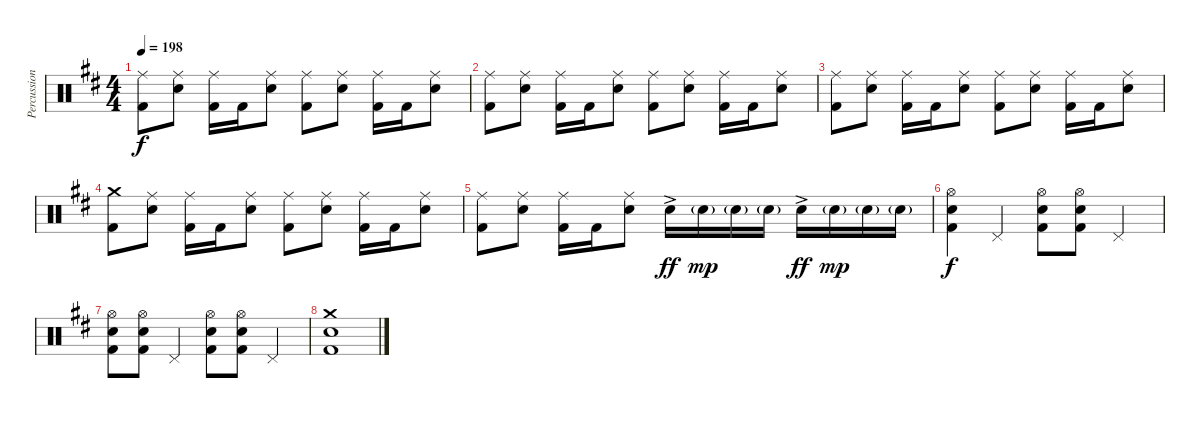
\track ("Percussion" "Percussion") {instrument percussion}
\staff {score}
\articulation defaults
\ts (4 4)
\tempo 198
\clef neutral
\ks bminor
("Ride (middle)" "Kick (hit) 2").8{dy f} ("Ride (middle)" "Snare (hit) 2").8 ("Ride (middle)" "Kick (hit) 2").16 "Kick (hit) 2".16 ("Ride (middle)" "Snare (hit) 2").8 ("Ride (middle)" "Kick (hit) 2").8 ("Ride (middle)" "Snare (hit) 2").8 ("Ride (middle)" "Kick (hit) 2").16 "Kick (hit) 2".16 ("Ride (middle)" "Snare (hit) 2").8 |
("Ride (middle)" "Kick (hit) 2").8 ("Ride (middle)" "Snare (hit) 2").8 ("Ride (middle)" "Kick (hit) 2").16 "Kick (hit) 2".16 ("Ride (middle)" "Snare (hit) 2").8 ("Ride (middle)" "Kick (hit) 2").8 ("Ride (middle)" "Snare (hit) 2").8 ("Ride (middle)" "Kick (hit) 2").16 "Kick (hit) 2".16 ("Ride (middle)" "Snare (hit) 2").8 |
("Ride (middle)" "Kick (hit) 2").8 ("Ride (middle)" "Snare (hit) 2").8 ("Ride (middle)" "Kick (hit) 2").16 "Kick (hit) 2".16 ("Ride (middle)" "Snare (hit) 2").8 ("Ride (middle)" "Kick (hit) 2").8 ("Ride (middle)" "Snare (hit) 2").8 ("Ride (middle)" "Kick (hit) 2").16 "Kick (hit) 2".16 ("Ride (middle)" "Snare (hit) 2").8 |
("Crash medium (hit)" "Kick (hit) 2").8 ("Ride (middle)" "Snare (hit) 2").8 ("Ride (middle)" "Kick (hit) 2").16 "Kick (hit) 2".16 ("Ride (middle)" "Snare (hit) 2").8 ("Ride (middle)" "Kick (hit) 2").8 ("Ride (middle)" "Snare (hit) 2").8 ("Ride (middle)" "Kick (hit) 2").16 "Kick (hit) 2".16 ("Ride (middle)" "Snare (hit) 2").8 |
("Ride (middle)" "Kick (hit) 2").8 ("Ride (middle)" "Snare (hit) 2").8 ("Ride (middle)" "Kick (hit) 2").16 "Kick (hit) 2".16 ("Ride (middle)" "Snare (hit) 2").8 "Snare (hit) 2"{ac}.16{dy ff} "Snare (hit) 2"{g}.16{dy mp} "Snare (hit) 2"{g}.16 "Snare (hit) 2"{g}.16 "Snare (hit) 2"{ac}.16{dy ff} "Snare (hit) 2"{g}.16{dy mp} "Snare (hit) 2"{g}.16 "Snare (hit) 2"{g}.16 |
("Hi-Hat (open)" "Snare (hit) 2" "Kick (hit) 2").4{dy f} "Pedal Hi-Hat (hit)".4 ("Hi-Hat (open)" "Snare (hit) 2" "Kick (hit) 2").8 ("Hi-Hat (open)" "Snare (hit) 2" "Kick (hit) 2").8 "Pedal Hi-Hat (hit)".4 |
("Hi-Hat (open)" "Snare (hit) 2" "Kick (hit) 2").8 ("Hi-Hat (open)" "Snare (hit) 2" "Kick (hit) 2").8 "Pedal Hi-Hat (hit)".4 ("Hi-Hat (open)" "Snare (hit) 2" "Kick (hit) 2").8 ("Hi-Hat (open)" "Snare (hit) 2" "Kick (hit) 2").8 "Pedal Hi-Hat (hit)".4 |
("Crash medium (hit)" "Snare (hit) 2" "Kick (hit) 2").1
